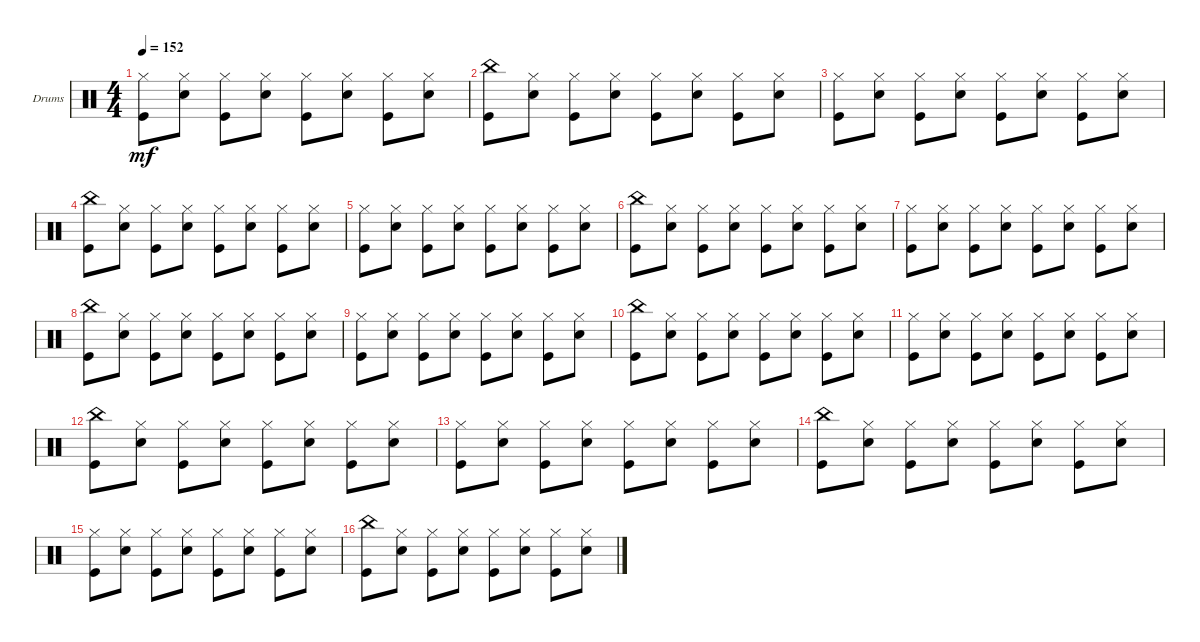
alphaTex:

\defaultSystemsLayout 4
\bracketExtendMode groupsimilarinstruments
\firstSystemTrackNameOrientation horizontal
\otherSystemsTrackNameOrientation horizontal
\track ("Drumkit" "Drums") {instrument percussion}
\staff {score}
\articulation defaults
\ts (4 4)
\tempo 152
\clef neutral
\ks c
("Kick (hit)" "Hi-Hat (closed)").8{dy mf} ("Snare (hit) 2" "Hi-Hat (closed)").8 ("Hi-Hat (closed)" "Kick (hit)").8 ("Hi-Hat (closed)" "Snare (hit) 2").8 ("Hi-Hat (closed)" "Kick (hit)").8 ("Hi-Hat (closed)" "Snare (hit) 2").8 ("Hi-Hat (closed)" "Kick (hit)").8 ("Hi-Hat (closed)" "Snare (hit) 2").8 |
("Kick (hit)" "China (hit)").8 ("Snare (hit) 2" "Hi-Hat (closed)").8 ("Hi-Hat (closed)" "Kick (hit)").8 ("Hi-Hat (closed)" "Snare (hit) 2").8 ("Hi-Hat (closed)" "Kick (hit)").8 ("Hi-Hat (closed)" "Snare (hit) 2").8 ("Hi-Hat (closed)" "Kick (hit)").8 ("Hi-Hat (closed)" "Snare (hit) 2").8 |
("Kick (hit)" "Hi-Hat (closed)").8 ("Snare (hit) 2" "Hi-Hat (closed)").8 ("Hi-Hat (closed)" "Kick (hit)").8 ("Hi-Hat (closed)" "Snare (hit) 2").8 ("Hi-Hat (closed)" "Kick (hit)").8 ("Hi-Hat (closed)" "Snare (hit) 2").8 ("Hi-Hat (closed)" "Kick (hit)").8 ("Hi-Hat (closed)" "Snare (hit) 2").8 |
("Kick (hit)" "China (hit)").8 ("Snare (hit) 2" "Hi-Hat (closed)").8 ("Hi-Hat (closed)" "Kick (hit)").8 ("Hi-Hat (closed)" "Snare (hit) 2").8 ("Hi-Hat (closed)" "Kick (hit)").8 ("Hi-Hat (closed)" "Snare (hit) 2").8 ("Hi-Hat (closed)" "Kick (hit)").8 ("Hi-Hat (closed)" "Snare (hit) 2").8 |
("Kick (hit)" "Hi-Hat (closed)").8 ("Snare (hit) 2" "Hi-Hat (closed)").8 ("Hi-Hat (closed)" "Kick (hit)").8 ("Hi-Hat (closed)" "Snare (hit) 2").8 ("Hi-Hat (closed)" "Kick (hit)").8 ("Hi-Hat (closed)" "Snare (hit) 2").8 ("Hi-Hat (closed)" "Kick (hit)").8 ("Hi-Hat (closed)" "Snare (hit) 2").8 |
("Kick (hit)" "China (hit)").8 ("Snare (hit) 2" "Hi-Hat (closed)").8 ("Hi-Hat (closed)" "Kick (hit)").8 ("Hi-Hat (closed)" "Snare (hit) 2").8 ("Hi-Hat (closed)" "Kick (hit)").8 ("Hi-Hat (closed)" "Snare (hit) 2").8 ("Hi-Hat (closed)" "Kick (hit)").8 ("Hi-Hat (closed)" "Snare (hit) 2").8 |
("Kick (hit)" "Hi-Hat (closed)").8 ("Snare (hit) 2" "Hi-Hat (closed)").8 ("Hi-Hat (closed)" "Kick (hit)").8 ("Hi-Hat (closed)" "Snare (hit) 2").8 ("Hi-Hat (closed)" "Kick (hit)").8 ("Hi-Hat (closed)" "Snare (hit) 2").8 ("Hi-Hat (closed)" "Kick (hit)").8 ("Hi-Hat (closed)" "Snare (hit) 2").8 |
("Kick (hit)" "China (hit)").8 ("Snare (hit) 2" "Hi-Hat (closed)").8 ("Hi-Hat (closed)" "Kick (hit)").8 ("Hi-Hat (closed)" "Snare (hit) 2").8 ("Hi-Hat (closed)" "Kick (hit)").8 ("Hi-Hat (closed)" "Snare (hit) 2").8 ("Hi-Hat (closed)" "Kick (hit)").8 ("Hi-Hat (closed)" "Snare (hit) 2").8 |
("Kick (hit)" "Hi-Hat (closed)").8 ("Snare (hit) 2" "Hi-Hat (closed)").8 ("Hi-Hat (closed)" "Kick (hit)").8 ("Hi-Hat (closed)" "Snare (hit) 2").8 ("Hi-Hat (closed)" "Kick (hit)").8 ("Hi-Hat (closed)" "Snare (hit) 2").8 ("Hi-Hat (closed)" "Kick (hit)").8 ("Hi-Hat (closed)" "Snare (hit) 2").8 |
("Kick (hit)" "China (hit)").8 ("Snare (hit) 2" "Hi-Hat (closed)").8 ("Hi-Hat (closed)" "Kick (hit)").8 ("Hi-Hat (closed)" "Snare (hit) 2").8 ("Hi-Hat (closed)" "Kick (hit)").8 ("Hi-Hat (closed)" "Snare (hit) 2").8 ("Hi-Hat (closed)" "Kick (hit)").8 ("Hi-Hat (closed)" "Snare (hit) 2").8 |
("Kick (hit)" "Hi-Hat (closed)").8 ("Snare (hit) 2" "Hi-Hat (closed)").8 ("Hi-Hat (closed)" "Kick (hit)").8 ("Hi-Hat (closed)" "Snare (hit) 2").8 ("Hi-Hat (closed)" "Kick (hit)").8 ("Hi-Hat (closed)" "Snare (hit) 2").8 ("Hi-Hat (closed)" "Kick (hit)").8 ("Hi-Hat (closed)" "Snare (hit) 2").8 |
("Kick (hit)" "China (hit)").8 ("Snare (hit) 2" "Hi-Hat (closed)").8 ("Hi-Hat (closed)" "Kick (hit)").8 ("Hi-Hat (closed)" "Snare (hit) 2").8 ("Hi-Hat (closed)" "Kick (hit)").8 ("Hi-Hat (closed)" "Snare (hit) 2").8 ("Hi-Hat (closed)" "Kick (hit)").8 ("Hi-Hat (closed)" "Snare (hit) 2").8 |
("Kick (hit)" "Hi-Hat (closed)").8 ("Snare (hit) 2" "Hi-Hat (closed)").8 ("Hi-Hat (closed)" "Kick (hit)").8 ("Hi-Hat (closed)" "Snare (hit) 2").8 ("Hi-Hat (closed)" "Kick (hit)").8 ("Hi-Hat (closed)" "Snare (hit) 2").8 ("Hi-Hat (closed)" "Kick (hit)").8 ("Hi-Hat (closed)" "Snare (hit) 2").8 |
("Kick (hit)" "China (hit)").8 ("Snare (hit) 2" "Hi-Hat (closed)").8 ("Hi-Hat (closed)" "Kick (hit)").8 ("Hi-Hat (closed)" "Snare (hit) 2").8 ("Hi-Hat (closed)" "Kick (hit)").8 ("Hi-Hat (closed)" "Snare (hit) 2").8 ("Hi-Hat (closed)" "Kick (hit)").8 ("Hi-Hat (closed)" "Snare (hit) 2").8 |
("Kick (hit)" "Hi-Hat (closed)").8 ("Snare (hit) 2" "Hi-Hat (closed)").8 ("Hi-Hat (closed)" "Kick (hit)").8 ("Hi-Hat (closed)" "Snare (hit) 2").8 ("Hi-Hat (closed)" "Kick (hit)").8 ("Hi-Hat (closed)" "Snare (hit) 2").8 ("Hi-Hat (closed)" "Kick (hit)").8 ("Hi-Hat (closed)" "Snare (hit) 2").8 |
("Kick (hit)" "China (hit)").8 ("Snare (hit) 2" "Hi-Hat (closed)").8 ("Hi-Hat (closed)" "Kick (hit)").8 ("Hi-Hat (closed)" "Snare (hit) 2").8 ("Hi-Hat (closed)" "Kick (hit)").8 ("Hi-Hat (closed)" "Snare (hit) 2").8 ("Hi-Hat (closed)" "Kick (hit)").8 ("Hi-Hat (closed)" "Snare (hit) 2").8
